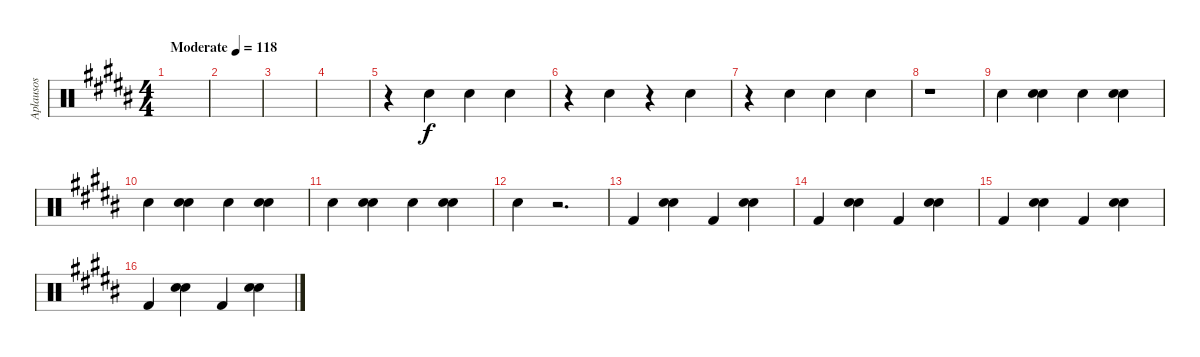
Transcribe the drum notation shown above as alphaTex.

\track ("Aplausos" "Aplausos") {instrument percussion}
\staff {score}
\articulation defaults
\ts (4 4)
\tempo (118 "Moderate")
\clef neutral
\ks b
|
|
|
|
r.4 "Hand Clap (hit)".4 "Hand Clap (hit)".4 "Hand Clap (hit)".4 |
r.4 "Hand Clap (hit)".4 r.4 "Hand Clap (hit)".4 |
r.4 "Hand Clap (hit)".4 "Hand Clap (hit)".4 "Hand Clap (hit)".4 |
r.1 |
"Hand Clap (hit)".4 ("Hand Clap (hit)" "Hand Clap (hit)").4 "Hand Clap (hit)".4 ("Hand Clap (hit)" "Hand Clap (hit)").4 |
"Hand Clap (hit)".4 ("Hand Clap (hit)" "Hand Clap (hit)").4 "Hand Clap (hit)".4 ("Hand Clap (hit)" "Hand Clap (hit)").4 |
"Hand Clap (hit)".4 ("Hand Clap (hit)" "Hand Clap (hit)").4 "Hand Clap (hit)".4 ("Hand Clap (hit)" "Hand Clap (hit)").4 |
"Hand Clap (hit)".4 r.2{d} |
"Kick (hit) 2".4 ("Hand Clap (hit)" "Hand Clap (hit)").4 "Kick (hit) 2".4 ("Hand Clap (hit)" "Hand Clap (hit)").4 |
"Kick (hit) 2".4 ("Hand Clap (hit)" "Hand Clap (hit)").4 "Kick (hit) 2".4 ("Hand Clap (hit)" "Hand Clap (hit)").4 |
"Kick (hit) 2".4 ("Hand Clap (hit)" "Hand Clap (hit)").4 "Kick (hit) 2".4 ("Hand Clap (hit)" "Hand Clap (hit)").4 |
"Kick (hit) 2".4 ("Hand Clap (hit)" "Hand Clap (hit)").4 "Kick (hit) 2".4 ("Hand Clap (hit)" "Hand Clap (hit)").4
